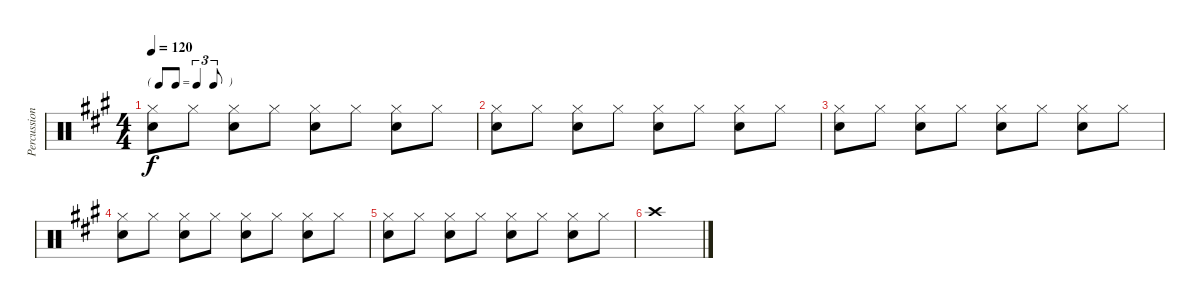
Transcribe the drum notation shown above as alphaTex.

\track ("Percussions" "Percussion") {instrument percussion}
\staff {score}
\articulation defaults
\ts (4 4)
\tf triplet8th
\tempo 120
\clef neutral
\ks a
("Snare (hit) 2" "Hi-Hat (closed)").8{dy f} "Hi-Hat (closed)".8 ("Snare (hit) 2" "Hi-Hat (closed)").8 "Hi-Hat (closed)".8 ("Snare (hit) 2" "Hi-Hat (closed)").8 "Hi-Hat (closed)".8 ("Snare (hit) 2" "Hi-Hat (closed)").8 "Hi-Hat (closed)".8 |
("Snare (hit) 2" "Hi-Hat (closed)").8 "Hi-Hat (closed)".8 ("Snare (hit) 2" "Hi-Hat (closed)").8 "Hi-Hat (closed)".8 ("Snare (hit) 2" "Hi-Hat (closed)").8 "Hi-Hat (closed)".8 ("Snare (hit) 2" "Hi-Hat (closed)").8 "Hi-Hat (closed)".8 |
("Snare (hit) 2" "Hi-Hat (closed)").8 "Hi-Hat (closed)".8 ("Snare (hit) 2" "Hi-Hat (closed)").8 "Hi-Hat (closed)".8 ("Snare (hit) 2" "Hi-Hat (closed)").8 "Hi-Hat (closed)".8 ("Snare (hit) 2" "Hi-Hat (closed)").8 "Hi-Hat (closed)".8 |
("Snare (hit) 2" "Hi-Hat (closed)").8 "Hi-Hat (closed)".8 ("Snare (hit) 2" "Hi-Hat (closed)").8 "Hi-Hat (closed)".8 ("Snare (hit) 2" "Hi-Hat (closed)").8 "Hi-Hat (closed)".8 ("Snare (hit) 2" "Hi-Hat (closed)").8 "Hi-Hat (closed)".8 |
("Snare (hit) 2" "Hi-Hat (closed)").8 "Hi-Hat (closed)".8 ("Snare (hit) 2" "Hi-Hat (closed)").8 "Hi-Hat (closed)".8 ("Snare (hit) 2" "Hi-Hat (closed)").8 "Hi-Hat (closed)".8 ("Snare (hit) 2" "Hi-Hat (closed)").8 "Hi-Hat (closed)".8 |
"Crash high (hit)".1
